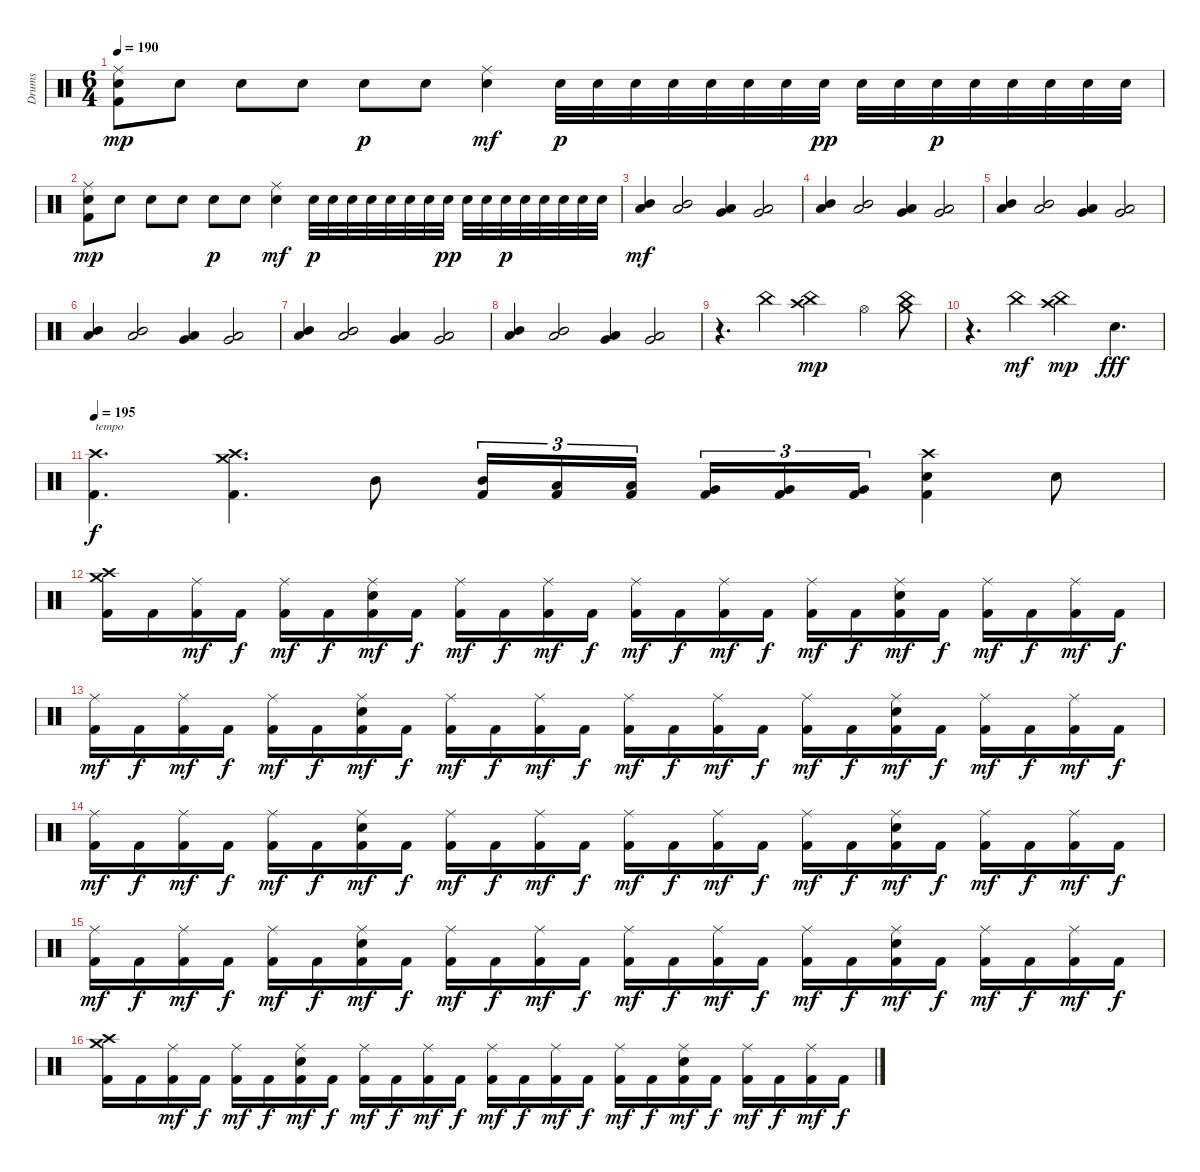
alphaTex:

\track ("Drums" "Drums") {instrument percussion}
\staff {score}
\articulation defaults
\ts (6 4)
\tempo 190
\clef neutral
\ks c
("Ride (middle)" "Electric Snare (hit)" "Kick (hit) 2").8{dy mp} "Electric Snare (hit)".8 "Electric Snare (hit)".8 "Electric Snare (hit)".8 "Electric Snare (hit)".8{dy p} "Electric Snare (hit)".8 ("Ride (middle)" "Electric Snare (hit)").4{dy mf} "Electric Snare (hit)".32{dy p} "Electric Snare (hit)".32 "Electric Snare (hit)".32 "Electric Snare (hit)".32 "Electric Snare (hit)".32 "Electric Snare (hit)".32 "Electric Snare (hit)".32 "Electric Snare (hit)".32{dy pp} "Electric Snare (hit)".32 "Electric Snare (hit)".32 "Electric Snare (hit)".32{dy p} "Electric Snare (hit)".32 "Electric Snare (hit)".32 "Electric Snare (hit)".32 "Electric Snare (hit)".32 "Electric Snare (hit)".32 |
("Ride (middle)" "Electric Snare (hit)" "Kick (hit) 2").8{dy mp} "Electric Snare (hit)".8 "Electric Snare (hit)".8 "Electric Snare (hit)".8 "Electric Snare (hit)".8{dy p} "Electric Snare (hit)".8 ("Ride (middle)" "Electric Snare (hit)").4{dy mf} "Electric Snare (hit)".32{dy p} "Electric Snare (hit)".32 "Electric Snare (hit)".32 "Electric Snare (hit)".32 "Electric Snare (hit)".32 "Electric Snare (hit)".32 "Electric Snare (hit)".32 "Electric Snare (hit)".32{dy pp} "Electric Snare (hit)".32 "Electric Snare (hit)".32 "Electric Snare (hit)".32{dy p} "Electric Snare (hit)".32 "Electric Snare (hit)".32 "Electric Snare (hit)".32 "Electric Snare (hit)".32 "Electric Snare (hit)".32 |
("Mid Tom (hit)" "Low Tom (hit)").4{dy mf balance 13} ("Mid Tom (hit)" "Low Tom (hit)").2 ("Low Tom (hit)" "Very Low Tom (hit)").4{balance 3} ("Low Tom (hit)" "Very Low Tom (hit)").2 |
("Mid Tom (hit)" "Low Tom (hit)").4{balance 13} ("Mid Tom (hit)" "Low Tom (hit)").2 ("Low Tom (hit)" "Very Low Tom (hit)").4{balance 3} ("Low Tom (hit)" "Very Low Tom (hit)").2 |
("Mid Tom (hit)" "Low Tom (hit)").4{balance 13} ("Mid Tom (hit)" "Low Tom (hit)").2 ("Low Tom (hit)" "Very Low Tom (hit)").4{balance 3} ("Low Tom (hit)" "Very Low Tom (hit)").2 |
("Mid Tom (hit)" "Low Tom (hit)").4{balance 13} ("Mid Tom (hit)" "Low Tom (hit)").2 ("Low Tom (hit)" "Very Low Tom (hit)").4{balance 3} ("Low Tom (hit)" "Very Low Tom (hit)").2 |
("Mid Tom (hit)" "Low Tom (hit)").4{balance 13} ("Mid Tom (hit)" "Low Tom (hit)").2 ("Low Tom (hit)" "Very Low Tom (hit)").4{balance 3} ("Low Tom (hit)" "Very Low Tom (hit)").2 |
("Mid Tom (hit)" "Low Tom (hit)").4{balance 13} ("Mid Tom (hit)" "Low Tom (hit)").2 ("Low Tom (hit)" "Very Low Tom (hit)").4{balance 3} ("Low Tom (hit)" "Very Low Tom (hit)").2 |
r.4{d balance 12} "China (hit)".4 ("China (hit)" "Crash high (hit)").2{dy mp} "Hi-Hat (open)".4 ("China (hit)" "Crash medium (hit)").8 |
r.4{d} "China (hit)".4{dy mf} ("China (hit)" "Crash high (hit)").2{dy mp} "Electric Snare (hit)".4{d dy fff volume 13} |
\tempo 195
("Crash high (hit)" "Kick (hit) 2").4{d txt "tempo" dy f} ("Crash high (hit)" "Crash medium (hit)" "Kick (hit) 2").4{d} "Mid Tom (hit)".8 ("Mid Tom (hit)" "Kick (hit) 2").16{tu (3 2)} ("Low Tom (hit)" "Kick (hit) 2").16{tu (3 2)} ("Low Tom (hit)" "Kick (hit) 2").16{tu (3 2) beam splitsecondary} ("Very Low Tom (hit)" "Kick (hit) 2").16{tu (3 2)} ("Very Low Tom (hit)" "Kick (hit) 2").16{tu (3 2)} ("Very Low Tom (hit)" "Kick (hit) 2").16{tu (3 2)} ("Crash high (hit)" "Electric Snare (hit)" "Kick (hit) 2").4 "Electric Snare (hit)".8 |
("Crash high (hit)" "Crash medium (hit)" "Kick (hit) 2").16 "Kick (hit) 2".16 ("Ride (middle)" "Kick (hit) 2").16{dy mf} "Kick (hit) 2".16{dy f} ("Ride (middle)" "Kick (hit) 2").16{dy mf} "Kick (hit) 2".16{dy f} ("Ride (middle)" "Electric Snare (hit)" "Kick (hit) 2").16{dy mf} "Kick (hit) 2".16{dy f} ("Ride (middle)" "Kick (hit) 2").16{dy mf} "Kick (hit) 2".16{dy f} ("Ride (middle)" "Kick (hit) 2").16{dy mf} "Kick (hit) 2".16{dy f} ("Ride (middle)" "Kick (hit) 2").16{dy mf} "Kick (hit) 2".16{dy f} ("Ride (middle)" "Kick (hit) 2").16{dy mf} "Kick (hit) 2".16{dy f} ("Ride (middle)" "Kick (hit) 2").16{dy mf} "Kick (hit) 2".16{dy f} ("Ride (middle)" "Electric Snare (hit)" "Kick (hit) 2").16{dy mf} "Kick (hit) 2".16{dy f} ("Ride (middle)" "Kick (hit) 2").16{dy mf} "Kick (hit) 2".16{dy f} ("Ride (middle)" "Kick (hit) 2").16{dy mf} "Kick (hit) 2".16{dy f} |
("Ride (middle)" "Kick (hit) 2").16{dy mf} "Kick (hit) 2".16{dy f} ("Ride (middle)" "Kick (hit) 2").16{dy mf} "Kick (hit) 2".16{dy f} ("Ride (middle)" "Kick (hit) 2").16{dy mf} "Kick (hit) 2".16{dy f} ("Ride (middle)" "Electric Snare (hit)" "Kick (hit) 2").16{dy mf} "Kick (hit) 2".16{dy f} ("Ride (middle)" "Kick (hit) 2").16{dy mf} "Kick (hit) 2".16{dy f} ("Ride (middle)" "Kick (hit) 2").16{dy mf} "Kick (hit) 2".16{dy f} ("Ride (middle)" "Kick (hit) 2").16{dy mf} "Kick (hit) 2".16{dy f} ("Ride (middle)" "Kick (hit) 2").16{dy mf} "Kick (hit) 2".16{dy f} ("Ride (middle)" "Kick (hit) 2").16{dy mf} "Kick (hit) 2".16{dy f} ("Ride (middle)" "Electric Snare (hit)" "Kick (hit) 2").16{dy mf} "Kick (hit) 2".16{dy f} ("Ride (middle)" "Kick (hit) 2").16{dy mf} "Kick (hit) 2".16{dy f} ("Ride (middle)" "Kick (hit) 2").16{dy mf} "Kick (hit) 2".16{dy f} |
("Ride (middle)" "Kick (hit) 2").16{dy mf} "Kick (hit) 2".16{dy f} ("Ride (middle)" "Kick (hit) 2").16{dy mf} "Kick (hit) 2".16{dy f} ("Ride (middle)" "Kick (hit) 2").16{dy mf} "Kick (hit) 2".16{dy f} ("Ride (middle)" "Electric Snare (hit)" "Kick (hit) 2").16{dy mf} "Kick (hit) 2".16{dy f} ("Ride (middle)" "Kick (hit) 2").16{dy mf} "Kick (hit) 2".16{dy f} ("Ride (middle)" "Kick (hit) 2").16{dy mf} "Kick (hit) 2".16{dy f} ("Ride (middle)" "Kick (hit) 2").16{dy mf} "Kick (hit) 2".16{dy f} ("Ride (middle)" "Kick (hit) 2").16{dy mf} "Kick (hit) 2".16{dy f} ("Ride (middle)" "Kick (hit) 2").16{dy mf} "Kick (hit) 2".16{dy f} ("Ride (middle)" "Electric Snare (hit)" "Kick (hit) 2").16{dy mf} "Kick (hit) 2".16{dy f} ("Ride (middle)" "Kick (hit) 2").16{dy mf} "Kick (hit) 2".16{dy f} ("Ride (middle)" "Kick (hit) 2").16{dy mf} "Kick (hit) 2".16{dy f} |
("Ride (middle)" "Kick (hit) 2").16{dy mf} "Kick (hit) 2".16{dy f} ("Ride (middle)" "Kick (hit) 2").16{dy mf} "Kick (hit) 2".16{dy f} ("Ride (middle)" "Kick (hit) 2").16{dy mf} "Kick (hit) 2".16{dy f} ("Ride (middle)" "Electric Snare (hit)" "Kick (hit) 2").16{dy mf} "Kick (hit) 2".16{dy f} ("Ride (middle)" "Kick (hit) 2").16{dy mf} "Kick (hit) 2".16{dy f} ("Ride (middle)" "Kick (hit) 2").16{dy mf} "Kick (hit) 2".16{dy f} ("Ride (middle)" "Kick (hit) 2").16{dy mf} "Kick (hit) 2".16{dy f} ("Ride (middle)" "Kick (hit) 2").16{dy mf} "Kick (hit) 2".16{dy f} ("Ride (middle)" "Kick (hit) 2").16{dy mf} "Kick (hit) 2".16{dy f} ("Ride (middle)" "Electric Snare (hit)" "Kick (hit) 2").16{dy mf} "Kick (hit) 2".16{dy f} ("Ride (middle)" "Kick (hit) 2").16{dy mf} "Kick (hit) 2".16{dy f} ("Ride (middle)" "Kick (hit) 2").16{dy mf} "Kick (hit) 2".16{dy f} |
("Crash high (hit)" "Crash medium (hit)" "Kick (hit) 2").16 "Kick (hit) 2".16 ("Ride (middle)" "Kick (hit) 2").16{dy mf} "Kick (hit) 2".16{dy f} ("Ride (middle)" "Kick (hit) 2").16{dy mf} "Kick (hit) 2".16{dy f} ("Ride (middle)" "Electric Snare (hit)" "Kick (hit) 2").16{dy mf} "Kick (hit) 2".16{dy f} ("Ride (middle)" "Kick (hit) 2").16{dy mf} "Kick (hit) 2".16{dy f} ("Ride (middle)" "Kick (hit) 2").16{dy mf} "Kick (hit) 2".16{dy f} ("Ride (middle)" "Kick (hit) 2").16{dy mf} "Kick (hit) 2".16{dy f} ("Ride (middle)" "Kick (hit) 2").16{dy mf} "Kick (hit) 2".16{dy f} ("Ride (middle)" "Kick (hit) 2").16{dy mf} "Kick (hit) 2".16{dy f} ("Ride (middle)" "Electric Snare (hit)" "Kick (hit) 2").16{dy mf} "Kick (hit) 2".16{dy f} ("Ride (middle)" "Kick (hit) 2").16{dy mf} "Kick (hit) 2".16{dy f} ("Ride (middle)" "Kick (hit) 2").16{dy mf} "Kick (hit) 2".16{dy f}
